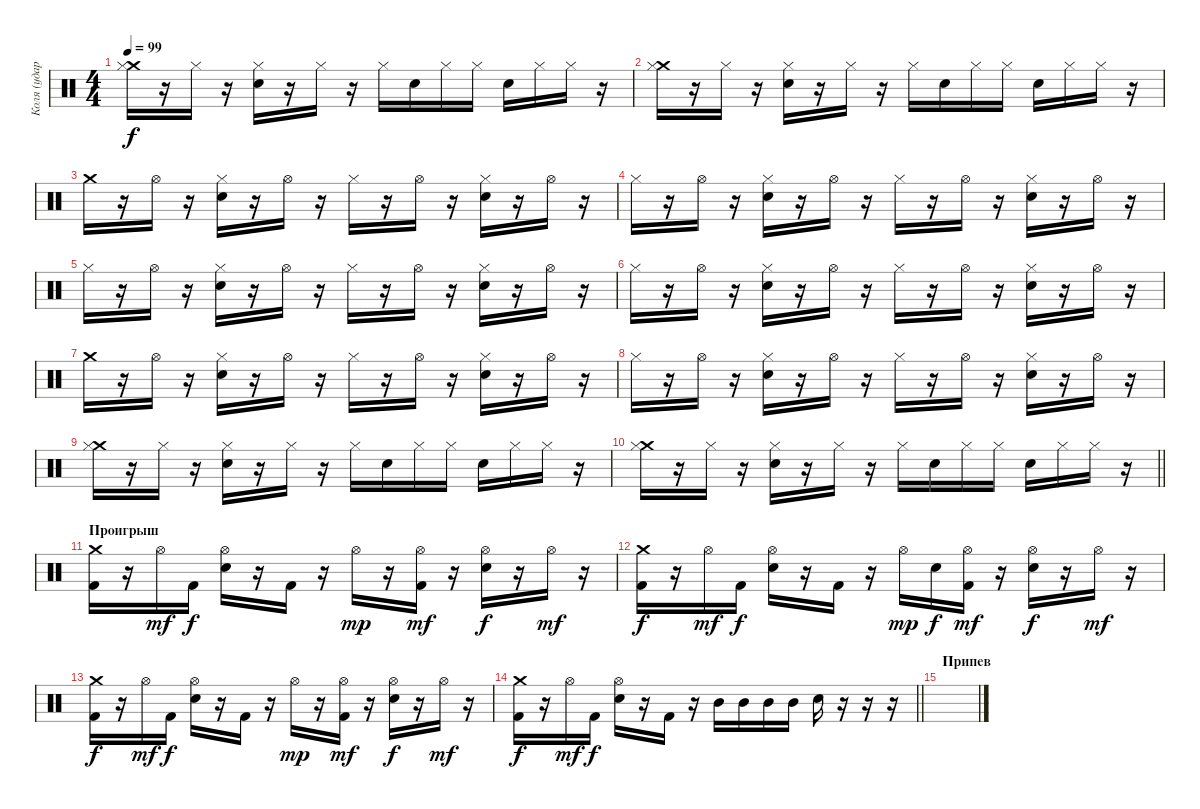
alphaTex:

\track ("Коля (ударные)" "Коля (удар") {instrument percussion}
\staff {score}
\articulation defaults
\ts (4 4)
\tempo 99
\clef neutral
\ks c
("Crash medium (hit)" "Hi-Hat (closed)").16{dy f} r.16 "Hi-Hat (closed)".16 r.16 ("Electric Snare (hit)" "Hi-Hat (closed)").16 r.16 "Hi-Hat (closed)".16 r.16 "Hi-Hat (closed)".16 "Electric Snare (hit)".16 "Hi-Hat (closed)".16 "Hi-Hat (closed)".16 "Electric Snare (hit)".16 "Hi-Hat (closed)".16 "Hi-Hat (closed)".16 r.16 |
("Crash medium (hit)" "Hi-Hat (closed)").16 r.16 "Hi-Hat (closed)".16 r.16 ("Electric Snare (hit)" "Hi-Hat (closed)").16 r.16 "Hi-Hat (closed)".16 r.16 "Hi-Hat (closed)".16 "Electric Snare (hit)".16 "Hi-Hat (closed)".16 "Hi-Hat (closed)".16 "Electric Snare (hit)".16 "Hi-Hat (closed)".16 "Hi-Hat (closed)".16 r.16 |
"Crash medium (hit)".16 r.16 "Hi-Hat (open)".16 r.16 ("Electric Snare (hit)" "Hi-Hat (closed)").16 r.16 "Hi-Hat (open)".16 r.16 "Hi-Hat (closed)".16 r.16 "Hi-Hat (open)".16 r.16 ("Electric Snare (hit)" "Hi-Hat (closed)").16 r.16 "Hi-Hat (open)".16 r.16 |
"Hi-Hat (closed)".16 r.16 "Hi-Hat (open)".16 r.16 ("Electric Snare (hit)" "Hi-Hat (closed)").16 r.16 "Hi-Hat (open)".16 r.16 "Hi-Hat (closed)".16 r.16 "Hi-Hat (open)".16 r.16 ("Electric Snare (hit)" "Hi-Hat (closed)").16 r.16 "Hi-Hat (open)".16 r.16 |
"Hi-Hat (closed)".16 r.16 "Hi-Hat (open)".16 r.16 ("Electric Snare (hit)" "Hi-Hat (closed)").16 r.16 "Hi-Hat (open)".16 r.16 "Hi-Hat (closed)".16 r.16 "Hi-Hat (open)".16 r.16 ("Electric Snare (hit)" "Hi-Hat (closed)").16 r.16 "Hi-Hat (open)".16 r.16 |
"Hi-Hat (closed)".16 r.16 "Hi-Hat (open)".16 r.16 ("Electric Snare (hit)" "Hi-Hat (closed)").16 r.16 "Hi-Hat (open)".16 r.16 "Hi-Hat (closed)".16 r.16 "Hi-Hat (open)".16 r.16 ("Electric Snare (hit)" "Hi-Hat (closed)").16 r.16 "Hi-Hat (open)".16 r.16 |
"Crash medium (hit)".16 r.16 "Hi-Hat (open)".16 r.16 ("Electric Snare (hit)" "Hi-Hat (closed)").16 r.16 "Hi-Hat (open)".16 r.16 "Hi-Hat (closed)".16 r.16 "Hi-Hat (open)".16 r.16 ("Electric Snare (hit)" "Hi-Hat (closed)").16 r.16 "Hi-Hat (open)".16 r.16 |
"Hi-Hat (closed)".16 r.16 "Hi-Hat (open)".16 r.16 ("Electric Snare (hit)" "Hi-Hat (closed)").16 r.16 "Hi-Hat (open)".16 r.16 "Hi-Hat (closed)".16 r.16 "Hi-Hat (open)".16 r.16 ("Electric Snare (hit)" "Hi-Hat (closed)").16 r.16 "Hi-Hat (open)".16 r.16 |
("Crash medium (hit)" "Hi-Hat (closed)").16 r.16 "Hi-Hat (closed)".16 r.16 ("Electric Snare (hit)" "Hi-Hat (closed)").16 r.16 "Hi-Hat (closed)".16 r.16 "Hi-Hat (closed)".16 "Electric Snare (hit)".16 "Hi-Hat (closed)".16 "Hi-Hat (closed)".16 "Electric Snare (hit)".16 "Hi-Hat (closed)".16 "Hi-Hat (closed)".16 r.16 |
\barLineRight lightlight
("Crash medium (hit)" "Hi-Hat (closed)").16 r.16 "Hi-Hat (closed)".16 r.16 ("Electric Snare (hit)" "Hi-Hat (closed)").16 r.16 "Hi-Hat (closed)".16 r.16 "Hi-Hat (closed)".16 "Electric Snare (hit)".16 "Hi-Hat (closed)".16 "Hi-Hat (closed)".16 "Electric Snare (hit)".16 "Hi-Hat (closed)".16 "Hi-Hat (closed)".16 r.16 |
\section ("" "Проигрыш")
("Crash medium (hit)" "Kick (hit) 2").16 r.16 "Hi-Hat (open)".16{dy mf} "Kick (hit) 2".16{dy f} ("Electric Snare (hit)" "Hi-Hat (open)").16 r.16 "Kick (hit) 2".16 r.16 "Hi-Hat (open)".16{dy mp} r.16 ("Kick (hit) 2" "Hi-Hat (open)").16{dy mf} r.16 ("Electric Snare (hit)" "Hi-Hat (open)").16{dy f} r.16 "Hi-Hat (open)".16{dy mf} r.16 |
("Crash medium (hit)" "Kick (hit) 2").16{dy f} r.16 "Hi-Hat (open)".16{dy mf} "Kick (hit) 2".16{dy f} ("Electric Snare (hit)" "Hi-Hat (open)").16 r.16 "Kick (hit) 2".16 r.16 "Hi-Hat (open)".16{dy mp} "Electric Snare (hit)".16{dy f} ("Kick (hit) 2" "Hi-Hat (open)").16{dy mf} r.16 ("Electric Snare (hit)" "Hi-Hat (open)").16{dy f} r.16 "Hi-Hat (open)".16{dy mf} r.16 |
("Crash medium (hit)" "Kick (hit) 2").16{dy f} r.16 "Hi-Hat (open)".16{dy mf} "Kick (hit) 2".16{dy f} ("Electric Snare (hit)" "Hi-Hat (open)").16 r.16 "Kick (hit) 2".16 r.16 "Hi-Hat (open)".16{dy mp} r.16 ("Kick (hit) 2" "Hi-Hat (open)").16{dy mf} r.16 ("Electric Snare (hit)" "Hi-Hat (open)").16{dy f} r.16 "Hi-Hat (open)".16{dy mf} r.16 |
\barLineRight lightlight
("Crash medium (hit)" "Kick (hit) 2").16{dy f} r.16 "Hi-Hat (open)".16{dy mf} "Kick (hit) 2".16{dy f} ("Electric Snare (hit)" "Hi-Hat (open)").16 r.16 "Kick (hit) 2".16 r.16 "Mid Tom (hit)".16 "Mid Tom (hit)".16 "Mid Tom (hit)".16 "Mid Tom (hit)".16 "Electric Snare (hit)".16 r.16 r.16 r.16 |
\section ("" "Припев")
